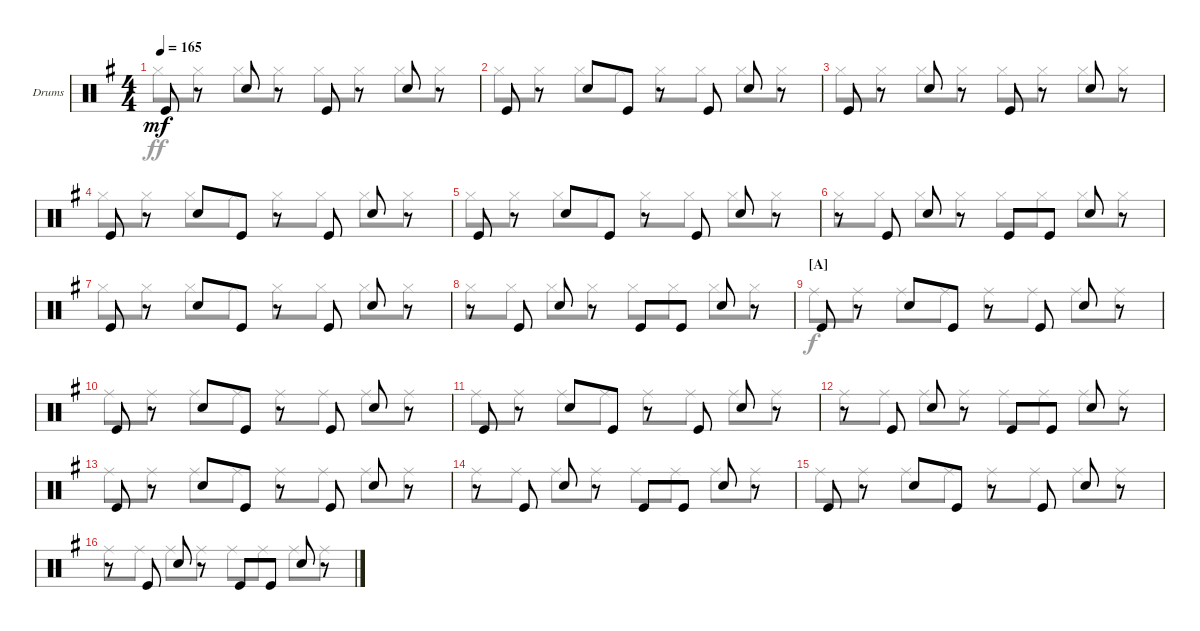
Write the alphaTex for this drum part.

\defaultSystemsLayout 4
\bracketExtendMode groupsimilarinstruments
\firstSystemTrackNameOrientation horizontal
\otherSystemsTrackNameOrientation horizontal
\track ("Fabrizio Moretti" "Drums") {instrument percussion}
\staff {score}
\articulation defaults
\voice
\ts (4 4)
\tempo 165
\clef neutral
\ks g "Kick (hit)".8{dy mf}
r.8 "Snare (hit) 2".8 r.8 "Kick (hit)".8 r.8 "Snare (hit) 2".8 r.8 |
"Kick (hit)".8 r.8 "Snare (hit) 2".8 "Kick (hit)".8 r.8 "Kick (hit)".8 "Snare (hit) 2".8 r.8 |
"Kick (hit)".8 r.8 "Snare (hit) 2".8 r.8 "Kick (hit)".8 r.8 "Snare (hit) 2".8 r.8 |
"Kick (hit)".8 r.8 "Snare (hit) 2".8 "Kick (hit)".8 r.8 "Kick (hit)".8 "Snare (hit) 2".8 r.8 |
"Kick (hit)".8 r.8 "Snare (hit) 2".8 "Kick (hit)".8 r.8 "Kick (hit)".8 "Snare (hit) 2".8 r.8 |
r.8 "Kick (hit)".8 "Snare (hit) 2".8 r.8 "Kick (hit)".8 "Kick (hit)".8 "Snare (hit) 2".8 r.8 |
"Kick (hit)".8 r.8 "Snare (hit) 2".8 "Kick (hit)".8 r.8 "Kick (hit)".8 "Snare (hit) 2".8 r.8 |
r.8 "Kick (hit)".8 "Snare (hit) 2".8 r.8 "Kick (hit)".8 "Kick (hit)".8 "Snare (hit) 2".8 r.8 |
\section ("A" "")
"Kick (hit)".8 r.8 "Snare (hit) 2".8 "Kick (hit)".8 r.8 "Kick (hit)".8 "Snare (hit) 2".8 r.8 |
"Kick (hit)".8 r.8 "Snare (hit) 2".8 "Kick (hit)".8 r.8 "Kick (hit)".8 "Snare (hit) 2".8 r.8 |
"Kick (hit)".8 r.8 "Snare (hit) 2".8 "Kick (hit)".8 r.8 "Kick (hit)".8 "Snare (hit) 2".8 r.8 |
r.8 "Kick (hit)".8 "Snare (hit) 2".8 r.8 "Kick (hit)".8 "Kick (hit)".8 "Snare (hit) 2".8 r.8 |
"Kick (hit)".8 r.8 "Snare (hit) 2".8 "Kick (hit)".8 r.8 "Kick (hit)".8 "Snare (hit) 2".8 r.8 |
r.8 "Kick (hit)".8 "Snare (hit) 2".8 r.8 "Kick (hit)".8 "Kick (hit)".8 "Snare (hit) 2".8 r.8 |
"Kick (hit)".8 r.8 "Snare (hit) 2".8 "Kick (hit)".8 r.8 "Kick (hit)".8 "Snare (hit) 2".8 r.8 |
r.8 "Kick (hit)".8 "Snare (hit) 2".8 r.8 "Kick (hit)".8 "Kick (hit)".8 "Snare (hit) 2".8 r.8
\voice
\clef neutral
\ottava regular
\simile none
\ks g "Hi-Hat (closed)".8{dy ff} "Hi-Hat (closed)".8 "Hi-Hat (closed)".8 "Hi-Hat (closed)".8 "Hi-Hat (closed)".8 "Hi-Hat (closed)".8 "Hi-Hat (closed)".8 "Hi-Hat (closed)".8
|
"Hi-Hat (closed)".8 "Hi-Hat (closed)".8 "Hi-Hat (closed)".8 "Hi-Hat (closed)".8 "Hi-Hat (closed)".8 "Hi-Hat (closed)".8 "Hi-Hat (closed)".8 "Hi-Hat (closed)".8 |
"Hi-Hat (closed)".8 "Hi-Hat (closed)".8 "Hi-Hat (closed)".8 "Hi-Hat (closed)".8 "Hi-Hat (closed)".8 "Hi-Hat (closed)".8 "Hi-Hat (closed)".8 "Hi-Hat (closed)".8 |
"Hi-Hat (closed)".8 "Hi-Hat (closed)".8 "Hi-Hat (closed)".8 "Hi-Hat (closed)".8 "Hi-Hat (closed)".8 "Hi-Hat (closed)".8 "Hi-Hat (closed)".8 "Hi-Hat (closed)".8 |
"Hi-Hat (closed)".8 "Hi-Hat (closed)".8 "Hi-Hat (closed)".8 "Hi-Hat (closed)".8 "Hi-Hat (closed)".8 "Hi-Hat (closed)".8 "Hi-Hat (closed)".8 "Hi-Hat (closed)".8 |
"Hi-Hat (closed)".8 "Hi-Hat (closed)".8 "Hi-Hat (closed)".8 "Hi-Hat (closed)".8 "Hi-Hat (closed)".8 "Hi-Hat (closed)".8 "Hi-Hat (closed)".8 "Hi-Hat (closed)".8 |
"Hi-Hat (closed)".8 "Hi-Hat (closed)".8 "Hi-Hat (closed)".8 "Hi-Hat (closed)".8 "Hi-Hat (closed)".8 "Hi-Hat (closed)".8 "Hi-Hat (closed)".8 "Hi-Hat (closed)".8 |
"Hi-Hat (closed)".8 "Hi-Hat (closed)".8 "Hi-Hat (closed)".8 "Hi-Hat (closed)".8 "Hi-Hat (closed)".8 "Hi-Hat (closed)".8 "Hi-Hat (closed)".8 "Hi-Hat (closed)".8 |
"Ride (middle)".8{dy f} "Ride (middle)".8 "Ride (middle)".8 "Ride (middle)".8 "Ride (middle)".8 "Ride (middle)".8 "Ride (middle)".8 "Ride (middle)".8 |
"Ride (middle)".8 "Ride (middle)".8 "Ride (middle)".8 "Ride (middle)".8 "Ride (middle)".8 "Ride (middle)".8 "Ride (middle)".8 "Ride (middle)".8 |
"Ride (middle)".8 "Ride (middle)".8 "Ride (middle)".8 "Ride (middle)".8 "Ride (middle)".8 "Ride (middle)".8 "Ride (middle)".8 "Ride (middle)".8 |
"Ride (middle)".8 "Ride (middle)".8 "Ride (middle)".8 "Ride (middle)".8 "Ride (middle)".8 "Ride (middle)".8 "Ride (middle)".8 "Ride (middle)".8 |
"Ride (middle)".8 "Ride (middle)".8 "Ride (middle)".8 "Ride (middle)".8 "Ride (middle)".8 "Ride (middle)".8 "Ride (middle)".8 "Ride (middle)".8 |
"Ride (middle)".8 "Ride (middle)".8 "Ride (middle)".8 "Ride (middle)".8 "Ride (middle)".8 "Ride (middle)".8 "Ride (middle)".8 "Ride (middle)".8 |
"Ride (middle)".8 "Ride (middle)".8 "Ride (middle)".8 "Ride (middle)".8 "Ride (middle)".8 "Ride (middle)".8 "Ride (middle)".8 "Ride (middle)".8 |
"Ride (middle)".8 "Ride (middle)".8 "Ride (middle)".8 "Ride (middle)".8 "Ride (middle)".8 "Ride (middle)".8 "Ride (middle)".8 "Ride (middle)".8
